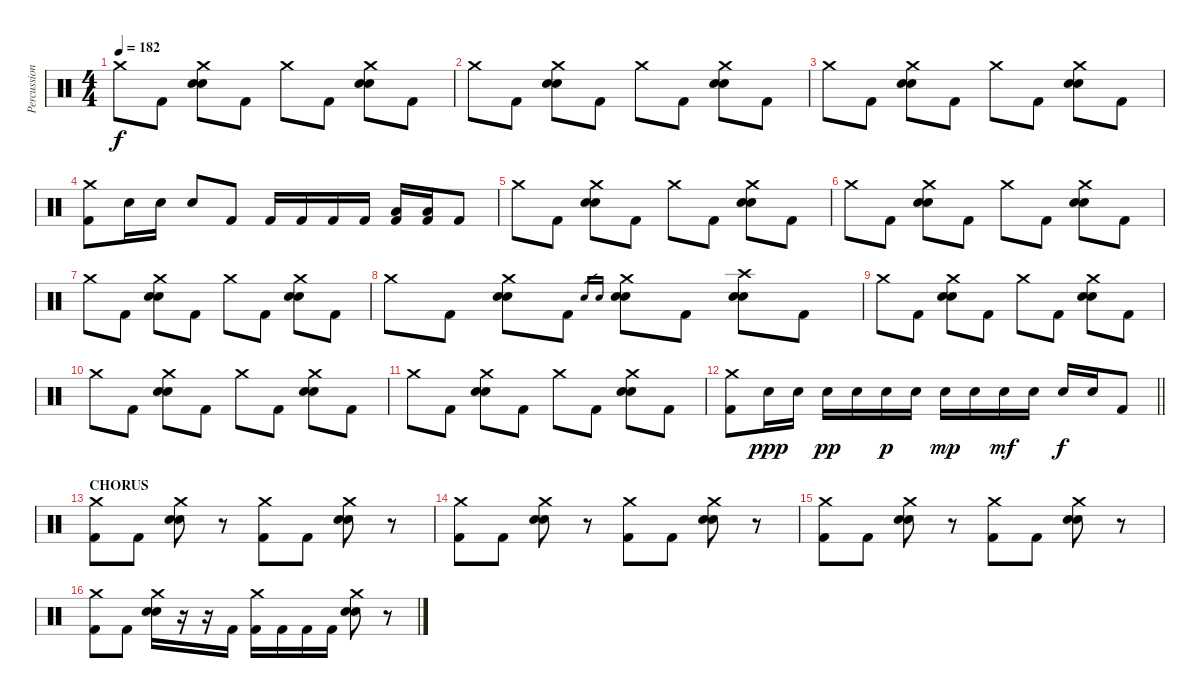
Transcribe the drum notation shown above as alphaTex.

\track ("Percussion" "Percussion") {instrument percussion}
\staff {score}
\articulation defaults
\ts (4 4)
\tempo 182
\clef neutral
\ks c "Crash medium (hit)".8{dy f} "Kick (hit) 2".8
("Crash medium (hit)" "Snare (hit) 2" "Electric Snare (hit)").8 "Kick (hit) 2".8 "Crash medium (hit)".8 "Kick (hit) 2".8 ("Crash medium (hit)" "Snare (hit) 2" "Electric Snare (hit)").8 "Kick (hit) 2".8 |
"Crash medium (hit)".8 "Kick (hit) 2".8 ("Crash medium (hit)" "Snare (hit) 2" "Electric Snare (hit)").8 "Kick (hit) 2".8 "Crash medium (hit)".8 "Kick (hit) 2".8 ("Crash medium (hit)" "Snare (hit) 2" "Electric Snare (hit)").8 "Kick (hit) 2".8 |
"Crash medium (hit)".8 "Kick (hit) 2".8 ("Crash medium (hit)" "Snare (hit) 2" "Electric Snare (hit)").8 "Kick (hit) 2".8 "Crash medium (hit)".8 "Kick (hit) 2".8 ("Crash medium (hit)" "Snare (hit) 2" "Electric Snare (hit)").8 "Kick (hit) 2".8 |
("Crash medium (hit)" "Kick (hit) 2").8 "Snare (hit) 2".16 "Snare (hit) 2".16 "Snare (hit) 2".8 "Kick (hit) 2".8 "Kick (hit) 2".16 "Kick (hit) 2".16 "Kick (hit) 2".16 "Kick (hit) 2".16 ("Low Floor Tom (hit)" "Kick (hit) 2").16 ("Low Floor Tom (hit)" "Kick (hit) 2").16 "Kick (hit) 2".8 |
"Crash medium (hit)".8 "Kick (hit) 2".8 ("Crash medium (hit)" "Snare (hit) 2" "Electric Snare (hit)").8 "Kick (hit) 2".8 "Crash medium (hit)".8 "Kick (hit) 2".8 ("Crash medium (hit)" "Snare (hit) 2" "Electric Snare (hit)").8 "Kick (hit) 2".8 |
"Crash medium (hit)".8 "Kick (hit) 2".8 ("Crash medium (hit)" "Snare (hit) 2" "Electric Snare (hit)").8 "Kick (hit) 2".8 "Crash medium (hit)".8 "Kick (hit) 2".8 ("Crash medium (hit)" "Snare (hit) 2" "Electric Snare (hit)").8 "Kick (hit) 2".8 |
"Crash medium (hit)".8 "Kick (hit) 2".8 ("Crash medium (hit)" "Snare (hit) 2" "Electric Snare (hit)").8 "Kick (hit) 2".8 "Crash medium (hit)".8 "Kick (hit) 2".8 ("Crash medium (hit)" "Snare (hit) 2" "Electric Snare (hit)").8 "Kick (hit) 2".8 |
"Crash medium (hit)".8 "Kick (hit) 2".8 ("Crash medium (hit)" "Snare (hit) 2" "Electric Snare (hit)").8 "Kick (hit) 2".8 "Snare (hit) 2".16{gr} "Electric Snare (hit)".16{gr} ("Crash medium (hit)" "Snare (hit) 2" "Electric Snare (hit)").8 "Kick (hit) 2".8 ("Crash high (hit)" "Snare (hit) 2" "Electric Snare (hit)").8 "Kick (hit) 2".8 |
"Crash medium (hit)".8 "Kick (hit) 2".8 ("Crash medium (hit)" "Snare (hit) 2" "Electric Snare (hit)").8 "Kick (hit) 2".8 "Crash medium (hit)".8 "Kick (hit) 2".8 ("Crash medium (hit)" "Snare (hit) 2" "Electric Snare (hit)").8 "Kick (hit) 2".8 |
"Crash medium (hit)".8 "Kick (hit) 2".8 ("Crash medium (hit)" "Snare (hit) 2" "Electric Snare (hit)").8 "Kick (hit) 2".8 "Crash medium (hit)".8 "Kick (hit) 2".8 ("Crash medium (hit)" "Snare (hit) 2" "Electric Snare (hit)").8 "Kick (hit) 2".8 |
"Crash medium (hit)".8 "Kick (hit) 2".8 ("Crash medium (hit)" "Snare (hit) 2" "Electric Snare (hit)").8 "Kick (hit) 2".8 "Crash medium (hit)".8 "Kick (hit) 2".8 ("Crash medium (hit)" "Snare (hit) 2" "Electric Snare (hit)").8 "Kick (hit) 2".8 |
\barLineRight lightlight
("Crash medium (hit)" "Kick (hit) 2").8 "Snare (hit) 2".16{dy ppp} "Snare (hit) 2".16 "Snare (hit) 2".16{dy pp} "Snare (hit) 2".16 "Snare (hit) 2".16{dy p} "Snare (hit) 2".16 "Snare (hit) 2".16{dy mp} "Snare (hit) 2".16 "Snare (hit) 2".16{dy mf} "Snare (hit) 2".16 "Snare (hit) 2".16{dy f} "Snare (hit) 2".16 "Kick (hit) 2".8 |
\section ("" "CHORUS")
("Crash medium (hit)" "Kick (hit) 2").8 "Kick (hit) 2".8 ("Crash medium (hit)" "Snare (hit) 2" "Electric Snare (hit)").8 r.8 ("Crash medium (hit)" "Kick (hit) 2").8 "Kick (hit) 2".8 ("Crash medium (hit)" "Snare (hit) 2" "Electric Snare (hit)").8 r.8 |
("Crash medium (hit)" "Kick (hit) 2").8 "Kick (hit) 2".8 ("Crash medium (hit)" "Snare (hit) 2" "Electric Snare (hit)").8 r.8 ("Crash medium (hit)" "Kick (hit) 2").8 "Kick (hit) 2".8 ("Crash medium (hit)" "Snare (hit) 2" "Electric Snare (hit)").8 r.8 |
("Crash medium (hit)" "Kick (hit) 2").8 "Kick (hit) 2".8 ("Crash medium (hit)" "Snare (hit) 2" "Electric Snare (hit)").8 r.8 ("Crash medium (hit)" "Kick (hit) 2").8 "Kick (hit) 2".8 ("Crash medium (hit)" "Snare (hit) 2" "Electric Snare (hit)").8 r.8 |
("Crash medium (hit)" "Kick (hit) 2").8 "Kick (hit) 2".8 ("Crash medium (hit)" "Snare (hit) 2" "Electric Snare (hit)").16 r.16 r.16 "Kick (hit) 2".16 ("Crash medium (hit)" "Kick (hit) 2").16 "Kick (hit) 2".16 "Kick (hit) 2".16 "Kick (hit) 2".16 ("Crash medium (hit)" "Snare (hit) 2" "Electric Snare (hit)").8 r.8
